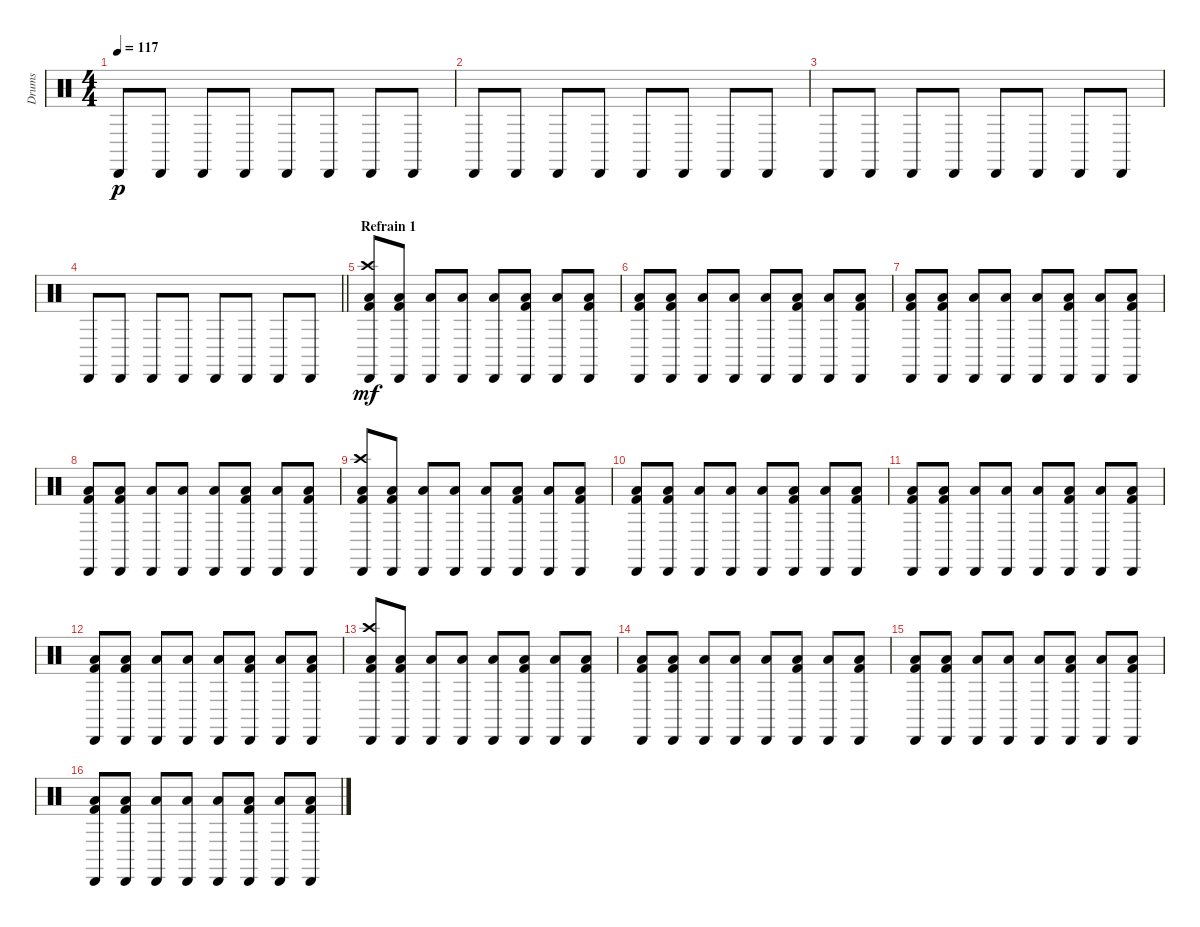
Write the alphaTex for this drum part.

\track ("Drums" "Drums") {instrument percussion}
\staff {score}
\articulation defaults
\ts (4 4)
\tempo 117
\clef neutral
\ks c "Cabasa (hit)".8{dy p} "Cabasa (hit)".8 "Cabasa (hit)".8 "Cabasa (hit)".8 "Cabasa (hit)".8 "Cabasa (hit)".8 "Cabasa (hit)".8 "Cabasa (hit)".8
|
"Cabasa (hit)".8 "Cabasa (hit)".8 "Cabasa (hit)".8 "Cabasa (hit)".8 "Cabasa (hit)".8 "Cabasa (hit)".8 "Cabasa (hit)".8 "Cabasa (hit)".8 |
"Cabasa (hit)".8 "Cabasa (hit)".8 "Cabasa (hit)".8 "Cabasa (hit)".8 "Cabasa (hit)".8 "Cabasa (hit)".8 "Cabasa (hit)".8 "Cabasa (hit)".8 |
\barLineRight lightlight "Cabasa (hit)".8 "Cabasa (hit)".8 "Cabasa (hit)".8 "Cabasa (hit)".8 "Cabasa (hit)".8 "Cabasa (hit)".8 "Cabasa (hit)".8 "Cabasa (hit)".8
|
\section ("" "Refrain 1")
("Crash high (hit)" "Cabasa (hit)" "Low Floor Tom (hit)" "Kick (hit) 2").8{dy mf} ("Cabasa (hit)" "Low Floor Tom (hit)" "Kick (hit) 2").8 ("Cabasa (hit)" "Low Floor Tom (hit)").8 ("Cabasa (hit)" "Low Floor Tom (hit)").8 ("Cabasa (hit)" "Low Floor Tom (hit)").8 ("Cabasa (hit)" "Low Floor Tom (hit)" "Kick (hit) 2").8 ("Cabasa (hit)" "Low Floor Tom (hit)").8 ("Cabasa (hit)" "Low Floor Tom (hit)" "Kick (hit) 2").8 |
("Cabasa (hit)" "Low Floor Tom (hit)" "Kick (hit) 2").8 ("Cabasa (hit)" "Low Floor Tom (hit)" "Kick (hit) 2").8 ("Cabasa (hit)" "Low Floor Tom (hit)").8 ("Cabasa (hit)" "Low Floor Tom (hit)").8 ("Cabasa (hit)" "Low Floor Tom (hit)").8 ("Cabasa (hit)" "Low Floor Tom (hit)" "Kick (hit) 2").8 ("Cabasa (hit)" "Low Floor Tom (hit)").8 ("Cabasa (hit)" "Low Floor Tom (hit)" "Kick (hit) 2").8 |
("Cabasa (hit)" "Low Floor Tom (hit)" "Kick (hit) 2").8 ("Cabasa (hit)" "Low Floor Tom (hit)" "Kick (hit) 2").8 ("Cabasa (hit)" "Low Floor Tom (hit)").8 ("Cabasa (hit)" "Low Floor Tom (hit)").8 ("Cabasa (hit)" "Low Floor Tom (hit)").8 ("Cabasa (hit)" "Low Floor Tom (hit)" "Kick (hit) 2").8 ("Cabasa (hit)" "Low Floor Tom (hit)").8 ("Cabasa (hit)" "Low Floor Tom (hit)" "Kick (hit) 2").8 |
("Cabasa (hit)" "Low Floor Tom (hit)" "Kick (hit) 2").8 ("Cabasa (hit)" "Low Floor Tom (hit)" "Kick (hit) 2").8 ("Cabasa (hit)" "Low Floor Tom (hit)").8 ("Cabasa (hit)" "Low Floor Tom (hit)").8 ("Cabasa (hit)" "Low Floor Tom (hit)").8 ("Cabasa (hit)" "Low Floor Tom (hit)" "Kick (hit) 2").8 ("Cabasa (hit)" "Low Floor Tom (hit)").8 ("Cabasa (hit)" "Low Floor Tom (hit)" "Kick (hit) 2").8 |
("Crash high (hit)" "Cabasa (hit)" "Low Floor Tom (hit)" "Kick (hit) 2").8 ("Cabasa (hit)" "Low Floor Tom (hit)" "Kick (hit) 2").8 ("Cabasa (hit)" "Low Floor Tom (hit)").8 ("Cabasa (hit)" "Low Floor Tom (hit)").8 ("Cabasa (hit)" "Low Floor Tom (hit)").8 ("Cabasa (hit)" "Low Floor Tom (hit)" "Kick (hit) 2").8 ("Cabasa (hit)" "Low Floor Tom (hit)").8 ("Cabasa (hit)" "Low Floor Tom (hit)" "Kick (hit) 2").8 |
("Cabasa (hit)" "Low Floor Tom (hit)" "Kick (hit) 2").8 ("Cabasa (hit)" "Low Floor Tom (hit)" "Kick (hit) 2").8 ("Cabasa (hit)" "Low Floor Tom (hit)").8 ("Cabasa (hit)" "Low Floor Tom (hit)").8 ("Cabasa (hit)" "Low Floor Tom (hit)").8 ("Cabasa (hit)" "Low Floor Tom (hit)" "Kick (hit) 2").8 ("Cabasa (hit)" "Low Floor Tom (hit)").8 ("Cabasa (hit)" "Low Floor Tom (hit)" "Kick (hit) 2").8 |
("Cabasa (hit)" "Low Floor Tom (hit)" "Kick (hit) 2").8 ("Cabasa (hit)" "Low Floor Tom (hit)" "Kick (hit) 2").8 ("Cabasa (hit)" "Low Floor Tom (hit)").8 ("Cabasa (hit)" "Low Floor Tom (hit)").8 ("Cabasa (hit)" "Low Floor Tom (hit)").8 ("Cabasa (hit)" "Low Floor Tom (hit)" "Kick (hit) 2").8 ("Cabasa (hit)" "Low Floor Tom (hit)").8 ("Cabasa (hit)" "Low Floor Tom (hit)" "Kick (hit) 2").8 |
("Cabasa (hit)" "Low Floor Tom (hit)" "Kick (hit) 2").8 ("Cabasa (hit)" "Low Floor Tom (hit)" "Kick (hit) 2").8 ("Cabasa (hit)" "Low Floor Tom (hit)").8 ("Cabasa (hit)" "Low Floor Tom (hit)").8 ("Cabasa (hit)" "Low Floor Tom (hit)").8 ("Cabasa (hit)" "Low Floor Tom (hit)" "Kick (hit) 2").8 ("Cabasa (hit)" "Low Floor Tom (hit)").8 ("Cabasa (hit)" "Low Floor Tom (hit)" "Kick (hit) 2").8 |
("Crash high (hit)" "Cabasa (hit)" "Low Floor Tom (hit)" "Kick (hit) 2").8 ("Cabasa (hit)" "Low Floor Tom (hit)" "Kick (hit) 2").8 ("Cabasa (hit)" "Low Floor Tom (hit)").8 ("Cabasa (hit)" "Low Floor Tom (hit)").8 ("Cabasa (hit)" "Low Floor Tom (hit)").8 ("Cabasa (hit)" "Low Floor Tom (hit)" "Kick (hit) 2").8 ("Cabasa (hit)" "Low Floor Tom (hit)").8 ("Cabasa (hit)" "Low Floor Tom (hit)" "Kick (hit) 2").8 |
("Cabasa (hit)" "Low Floor Tom (hit)" "Kick (hit) 2").8 ("Cabasa (hit)" "Low Floor Tom (hit)" "Kick (hit) 2").8 ("Cabasa (hit)" "Low Floor Tom (hit)").8 ("Cabasa (hit)" "Low Floor Tom (hit)").8 ("Cabasa (hit)" "Low Floor Tom (hit)").8 ("Cabasa (hit)" "Low Floor Tom (hit)" "Kick (hit) 2").8 ("Cabasa (hit)" "Low Floor Tom (hit)").8 ("Cabasa (hit)" "Low Floor Tom (hit)" "Kick (hit) 2").8 |
("Cabasa (hit)" "Low Floor Tom (hit)" "Kick (hit) 2").8 ("Cabasa (hit)" "Low Floor Tom (hit)" "Kick (hit) 2").8 ("Cabasa (hit)" "Low Floor Tom (hit)").8 ("Cabasa (hit)" "Low Floor Tom (hit)").8 ("Cabasa (hit)" "Low Floor Tom (hit)").8 ("Cabasa (hit)" "Low Floor Tom (hit)" "Kick (hit) 2").8 ("Cabasa (hit)" "Low Floor Tom (hit)").8 ("Cabasa (hit)" "Low Floor Tom (hit)" "Kick (hit) 2").8 |
("Cabasa (hit)" "Low Floor Tom (hit)" "Kick (hit) 2").8 ("Cabasa (hit)" "Low Floor Tom (hit)" "Kick (hit) 2").8 ("Cabasa (hit)" "Low Floor Tom (hit)").8 ("Cabasa (hit)" "Low Floor Tom (hit)").8 ("Cabasa (hit)" "Low Floor Tom (hit)").8 ("Cabasa (hit)" "Low Floor Tom (hit)" "Kick (hit) 2").8 ("Cabasa (hit)" "Low Floor Tom (hit)").8 ("Cabasa (hit)" "Low Floor Tom (hit)" "Kick (hit) 2").8
